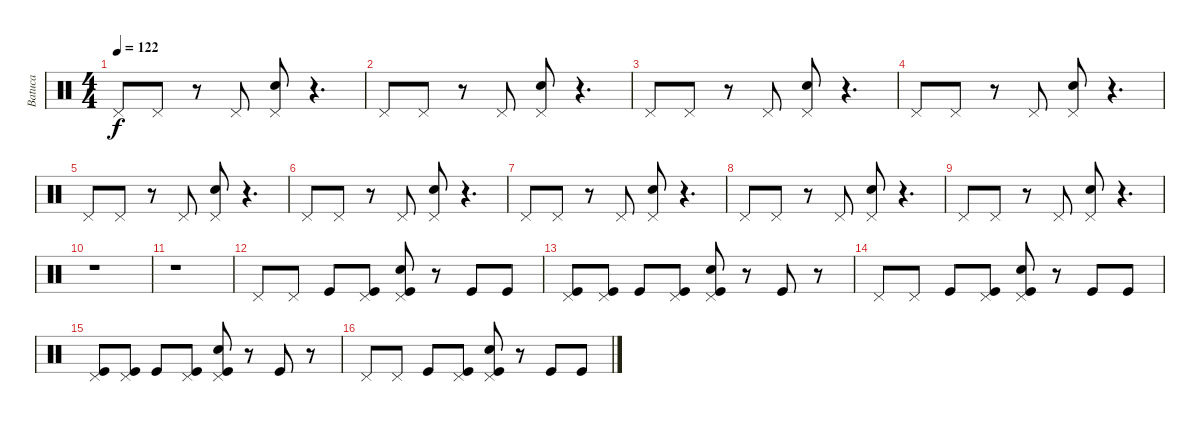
\track ("Batuca" "Batuca") {instrument percussion}
\staff {score}
\articulation defaults
\ts (4 4)
\tempo 122
\clef neutral
\ks c "Pedal Hi-Hat (hit)".8{dy f} "Pedal Hi-Hat (hit)".8
r.8 "Pedal Hi-Hat (hit)".8 ("Electric Snare (hit)" "Pedal Hi-Hat (hit)").8 r.4{d} |
"Pedal Hi-Hat (hit)".8 "Pedal Hi-Hat (hit)".8 r.8 "Pedal Hi-Hat (hit)".8 ("Electric Snare (hit)" "Pedal Hi-Hat (hit)").8 r.4{d} |
"Pedal Hi-Hat (hit)".8 "Pedal Hi-Hat (hit)".8 r.8 "Pedal Hi-Hat (hit)".8 ("Electric Snare (hit)" "Pedal Hi-Hat (hit)").8 r.4{d} |
"Pedal Hi-Hat (hit)".8 "Pedal Hi-Hat (hit)".8 r.8 "Pedal Hi-Hat (hit)".8 ("Electric Snare (hit)" "Pedal Hi-Hat (hit)").8 r.4{d} |
"Pedal Hi-Hat (hit)".8 "Pedal Hi-Hat (hit)".8 r.8 "Pedal Hi-Hat (hit)".8 ("Electric Snare (hit)" "Pedal Hi-Hat (hit)").8 r.4{d} |
"Pedal Hi-Hat (hit)".8 "Pedal Hi-Hat (hit)".8 r.8 "Pedal Hi-Hat (hit)".8 ("Electric Snare (hit)" "Pedal Hi-Hat (hit)").8 r.4{d} |
"Pedal Hi-Hat (hit)".8 "Pedal Hi-Hat (hit)".8 r.8 "Pedal Hi-Hat (hit)".8 ("Electric Snare (hit)" "Pedal Hi-Hat (hit)").8 r.4{d} |
"Pedal Hi-Hat (hit)".8 "Pedal Hi-Hat (hit)".8 r.8 "Pedal Hi-Hat (hit)".8 ("Electric Snare (hit)" "Pedal Hi-Hat (hit)").8 r.4{d} |
"Pedal Hi-Hat (hit)".8 "Pedal Hi-Hat (hit)".8 r.8 "Pedal Hi-Hat (hit)".8 ("Electric Snare (hit)" "Pedal Hi-Hat (hit)").8 r.4{d} |
r.1 |
r.1 |
"Pedal Hi-Hat (hit)".8 "Pedal Hi-Hat (hit)".8 "Kick (hit)".8 ("Kick (hit)" "Pedal Hi-Hat (hit)").8 ("Kick (hit)" "Electric Snare (hit)" "Pedal Hi-Hat (hit)").8 r.8 "Kick (hit)".8 "Kick (hit)".8 |
("Kick (hit)" "Pedal Hi-Hat (hit)").8 ("Kick (hit)" "Pedal Hi-Hat (hit)").8 "Kick (hit)".8 ("Kick (hit)" "Pedal Hi-Hat (hit)").8 ("Kick (hit)" "Electric Snare (hit)" "Pedal Hi-Hat (hit)").8 r.8 "Kick (hit)".8 r.8 |
"Pedal Hi-Hat (hit)".8 "Pedal Hi-Hat (hit)".8 "Kick (hit)".8 ("Kick (hit)" "Pedal Hi-Hat (hit)").8 ("Kick (hit)" "Electric Snare (hit)" "Pedal Hi-Hat (hit)").8 r.8 "Kick (hit)".8 "Kick (hit)".8 |
("Kick (hit)" "Pedal Hi-Hat (hit)").8 ("Kick (hit)" "Pedal Hi-Hat (hit)").8 "Kick (hit)".8 ("Kick (hit)" "Pedal Hi-Hat (hit)").8 ("Kick (hit)" "Electric Snare (hit)" "Pedal Hi-Hat (hit)").8 r.8 "Kick (hit)".8 r.8 |
"Pedal Hi-Hat (hit)".8 "Pedal Hi-Hat (hit)".8 "Kick (hit)".8 ("Kick (hit)" "Pedal Hi-Hat (hit)").8 ("Kick (hit)" "Electric Snare (hit)" "Pedal Hi-Hat (hit)").8 r.8 "Kick (hit)".8 "Kick (hit)".8
